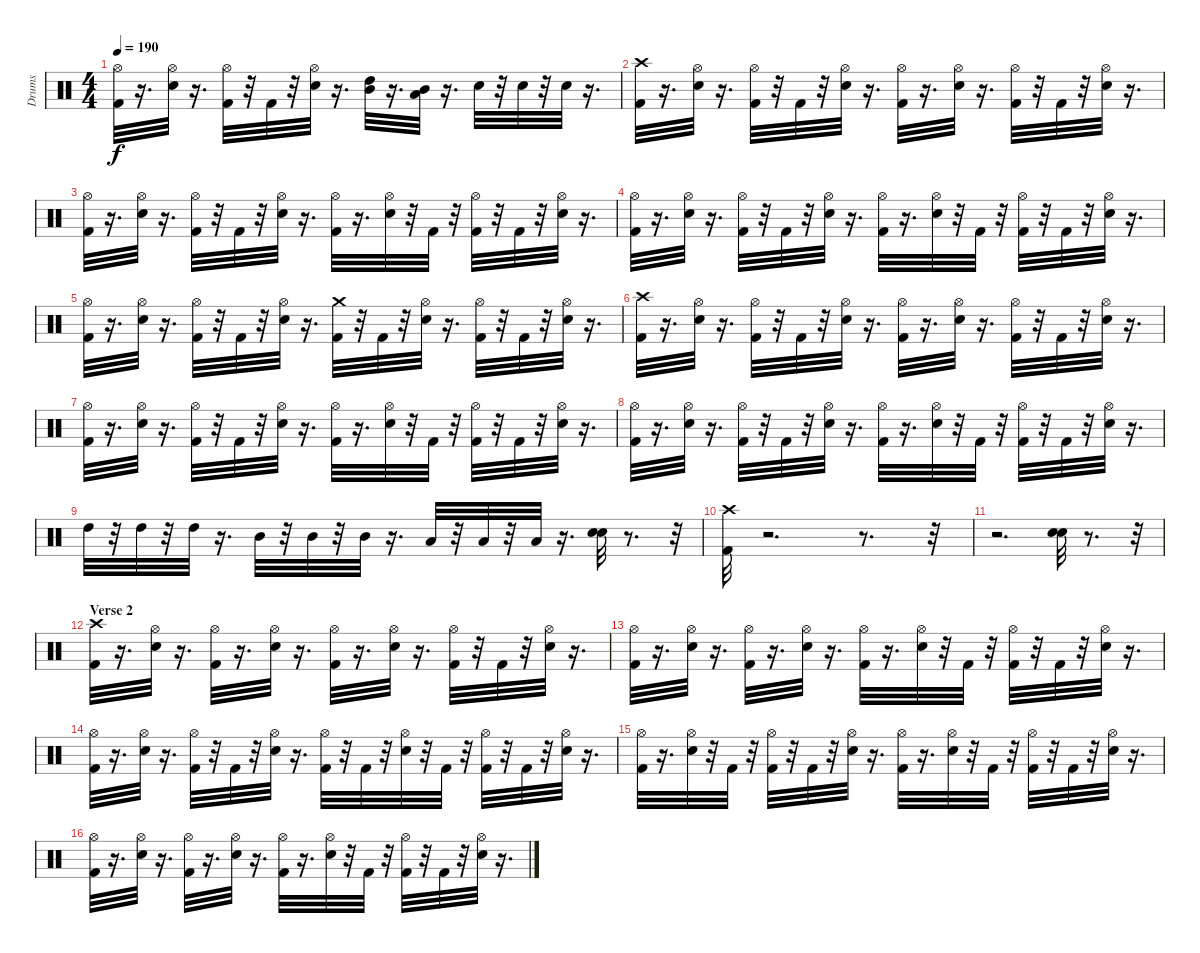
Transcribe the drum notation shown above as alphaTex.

\track ("Drums" "Drums") {instrument percussion}
\staff {score}
\articulation defaults
\ts (4 4)
\tempo 190
\clef neutral
\ks c
("Hi-Hat (open)" "Kick (hit) 2").32{dy f} r.16{d} ("Snare (hit) 2" "Hi-Hat (open)").32 r.16{d} ("Kick (hit) 2" "Hi-Hat (open)").32 r.32 "Kick (hit) 2".32 r.32 ("Hi-Hat (open)" "Snare (hit) 2").32 r.16{d} ("High Tom (hit)" "Mid Tom (hit)").32 r.16{d} ("Mid Tom (hit)" "Low Tom (hit)").32 r.16{d} "Snare (hit) 2".32 r.32 "Snare (hit) 2".32 r.32 "Snare (hit) 2".32 r.16{d} |
("Kick (hit) 2" "Crash high (hit)").32 r.16{d} ("Snare (hit) 2" "Hi-Hat (open)").32 r.16{d} ("Hi-Hat (open)" "Kick (hit) 2").32 r.32 "Kick (hit) 2".32 r.32 ("Snare (hit) 2" "Hi-Hat (open)").32 r.16{d} ("Kick (hit) 2" "Hi-Hat (open)").32 r.16{d} ("Snare (hit) 2" "Hi-Hat (open)").32 r.16{d} ("Kick (hit) 2" "Hi-Hat (open)").32 r.32 "Kick (hit) 2".32 r.32 ("Hi-Hat (open)" "Snare (hit) 2").32 r.16{d} |
("Kick (hit) 2" "Hi-Hat (open)").32 r.16{d} ("Snare (hit) 2" "Hi-Hat (open)").32 r.16{d} ("Kick (hit) 2" "Hi-Hat (open)").32 r.32 "Kick (hit) 2".32 r.32 ("Hi-Hat (open)" "Snare (hit) 2").32 r.16{d} ("Kick (hit) 2" "Hi-Hat (open)").32 r.16{d} ("Snare (hit) 2" "Hi-Hat (open)").32 r.32 "Kick (hit) 2".32 r.32 ("Hi-Hat (open)" "Kick (hit) 2").32 r.32 "Kick (hit) 2".32 r.32 ("Snare (hit) 2" "Hi-Hat (open)").32 r.16{d} |
("Hi-Hat (open)" "Kick (hit) 2").32 r.16{d} ("Snare (hit) 2" "Hi-Hat (open)").32 r.16{d} ("Kick (hit) 2" "Hi-Hat (open)").32 r.32 "Kick (hit) 2".32 r.32 ("Hi-Hat (open)" "Snare (hit) 2").32 r.16{d} ("Hi-Hat (open)" "Kick (hit) 2").32 r.16{d} ("Snare (hit) 2" "Hi-Hat (open)").32 r.32 "Kick (hit) 2".32 r.32 ("Hi-Hat (open)" "Kick (hit) 2").32 r.32 "Kick (hit) 2".32 r.32 ("Hi-Hat (open)" "Snare (hit) 2").32 r.16{d} |
("Kick (hit) 2" "Hi-Hat (open)").32 r.16{d} ("Hi-Hat (open)" "Snare (hit) 2").32 r.16{d} ("Kick (hit) 2" "Hi-Hat (open)").32 r.32 "Kick (hit) 2".32 r.32 ("Hi-Hat (open)" "Snare (hit) 2").32 r.16{d} ("Crash medium (hit)" "Kick (hit) 2").32 r.32 "Kick (hit) 2".32 r.32 ("Snare (hit) 2" "Hi-Hat (open)").32 r.16{d} ("Kick (hit) 2" "Hi-Hat (open)").32 r.32 "Kick (hit) 2".32 r.32 ("Snare (hit) 2" "Hi-Hat (open)").32 r.16{d} |
("Crash high (hit)" "Kick (hit) 2").32 r.16{d} ("Snare (hit) 2" "Hi-Hat (open)").32 r.16{d} ("Hi-Hat (open)" "Kick (hit) 2").32 r.32 "Kick (hit) 2".32 r.32 ("Hi-Hat (open)" "Snare (hit) 2").32 r.16{d} ("Kick (hit) 2" "Hi-Hat (open)").32 r.16{d} ("Hi-Hat (open)" "Snare (hit) 2").32 r.16{d} ("Hi-Hat (open)" "Kick (hit) 2").32 r.32 "Kick (hit) 2".32 r.32 ("Hi-Hat (open)" "Snare (hit) 2").32 r.16{d} |
("Hi-Hat (open)" "Kick (hit) 2").32 r.16{d} ("Hi-Hat (open)" "Snare (hit) 2").32 r.16{d} ("Hi-Hat (open)" "Kick (hit) 2").32 r.32 "Kick (hit) 2".32 r.32 ("Snare (hit) 2" "Hi-Hat (open)").32 r.16{d} ("Hi-Hat (open)" "Kick (hit) 2").32 r.16{d} ("Hi-Hat (open)" "Snare (hit) 2").32 r.32 "Kick (hit) 2".32 r.32 ("Hi-Hat (open)" "Kick (hit) 2").32 r.32 "Kick (hit) 2".32 r.32 ("Snare (hit) 2" "Hi-Hat (open)").32 r.16{d} |
("Kick (hit) 2" "Hi-Hat (open)").32 r.16{d} ("Snare (hit) 2" "Hi-Hat (open)").32 r.16{d} ("Kick (hit) 2" "Hi-Hat (open)").32 r.32 "Kick (hit) 2".32 r.32 ("Hi-Hat (open)" "Snare (hit) 2").32 r.16{d} ("Hi-Hat (open)" "Kick (hit) 2").32 r.16{d} ("Hi-Hat (open)" "Snare (hit) 2").32 r.32 "Kick (hit) 2".32 r.32 ("Hi-Hat (open)" "Kick (hit) 2").32 r.32 "Kick (hit) 2".32 r.32 ("Snare (hit) 2" "Hi-Hat (open)").32 r.16{d} |
"High Tom (hit)".32 r.32 "High Tom (hit)".32 r.32 "High Tom (hit)".32 r.16{d} "Mid Tom (hit)".32 r.32 "Mid Tom (hit)".32 r.32 "Mid Tom (hit)".32 r.16{d} "Low Tom (hit)".32 r.32 "Low Tom (hit)".32 r.32 "Low Tom (hit)".32 r.16{d} ("Electric Snare (hit)" "Snare (hit) 2").32 r.8{d} r.32 |
("Crash high (hit)" "Kick (hit) 2").32 r.2{d} r.8{d} r.32 |
r.2{d} ("Electric Snare (hit)" "Snare (hit) 2").32 r.8{d} r.32 |
\section ("" "Verse 2")
("Kick (hit) 2" "Crash high (hit)").32 r.16{d} ("Snare (hit) 2" "Hi-Hat (open)").32 r.16{d} ("Kick (hit) 2" "Hi-Hat (open)").32 r.16{d} ("Snare (hit) 2" "Hi-Hat (open)").32 r.16{d} ("Kick (hit) 2" "Hi-Hat (open)").32 r.16{d} ("Snare (hit) 2" "Hi-Hat (open)").32 r.16{d} ("Kick (hit) 2" "Hi-Hat (open)").32 r.32 "Kick (hit) 2".32 r.32 ("Snare (hit) 2" "Hi-Hat (open)").32 r.16{d} |
("Kick (hit) 2" "Hi-Hat (open)").32 r.16{d} ("Snare (hit) 2" "Hi-Hat (open)").32 r.16{d} ("Hi-Hat (open)" "Kick (hit) 2").32 r.16{d} ("Snare (hit) 2" "Hi-Hat (open)").32 r.16{d} ("Kick (hit) 2" "Hi-Hat (open)").32 r.16{d} ("Hi-Hat (open)" "Snare (hit) 2").32 r.32 "Kick (hit) 2".32 r.32 ("Kick (hit) 2" "Hi-Hat (open)").32 r.32 "Kick (hit) 2".32 r.32 ("Snare (hit) 2" "Hi-Hat (open)").32 r.16{d} |
("Hi-Hat (open)" "Kick (hit) 2").32 r.16{d} ("Hi-Hat (open)" "Snare (hit) 2").32 r.16{d} ("Hi-Hat (open)" "Kick (hit) 2").32 r.32 "Kick (hit) 2".32 r.32 ("Hi-Hat (open)" "Snare (hit) 2").32 r.16{d} ("Hi-Hat (open)" "Kick (hit) 2").32 r.32 "Kick (hit) 2".32 r.32 ("Snare (hit) 2" "Hi-Hat (open)").32 r.32 "Kick (hit) 2".32 r.32 ("Kick (hit) 2" "Hi-Hat (open)").32 r.32 "Kick (hit) 2".32 r.32 ("Snare (hit) 2" "Hi-Hat (open)").32 r.16{d} |
("Hi-Hat (open)" "Kick (hit) 2").32 r.16{d} ("Hi-Hat (open)" "Snare (hit) 2").32 r.32 "Kick (hit) 2".32 r.32 ("Hi-Hat (open)" "Kick (hit) 2").32 r.32 "Kick (hit) 2".32 r.32 ("Hi-Hat (open)" "Snare (hit) 2").32 r.16{d} ("Kick (hit) 2" "Hi-Hat (open)").32 r.16{d} ("Snare (hit) 2" "Hi-Hat (open)").32 r.32 "Kick (hit) 2".32 r.32 ("Kick (hit) 2" "Hi-Hat (open)").32 r.32 "Kick (hit) 2".32 r.32 ("Snare (hit) 2" "Hi-Hat (open)").32 r.16{d} |
("Hi-Hat (open)" "Kick (hit) 2").32 r.16{d} ("Snare (hit) 2" "Hi-Hat (open)").32 r.16{d} ("Hi-Hat (open)" "Kick (hit) 2").32 r.16{d} ("Hi-Hat (open)" "Snare (hit) 2").32 r.16{d} ("Hi-Hat (open)" "Kick (hit) 2").32 r.16{d} ("Snare (hit) 2" "Hi-Hat (open)").32 r.32 "Kick (hit) 2".32 r.32 ("Kick (hit) 2" "Hi-Hat (open)").32 r.32 "Kick (hit) 2".32 r.32 ("Hi-Hat (open)" "Snare (hit) 2").32 r.16{d}
